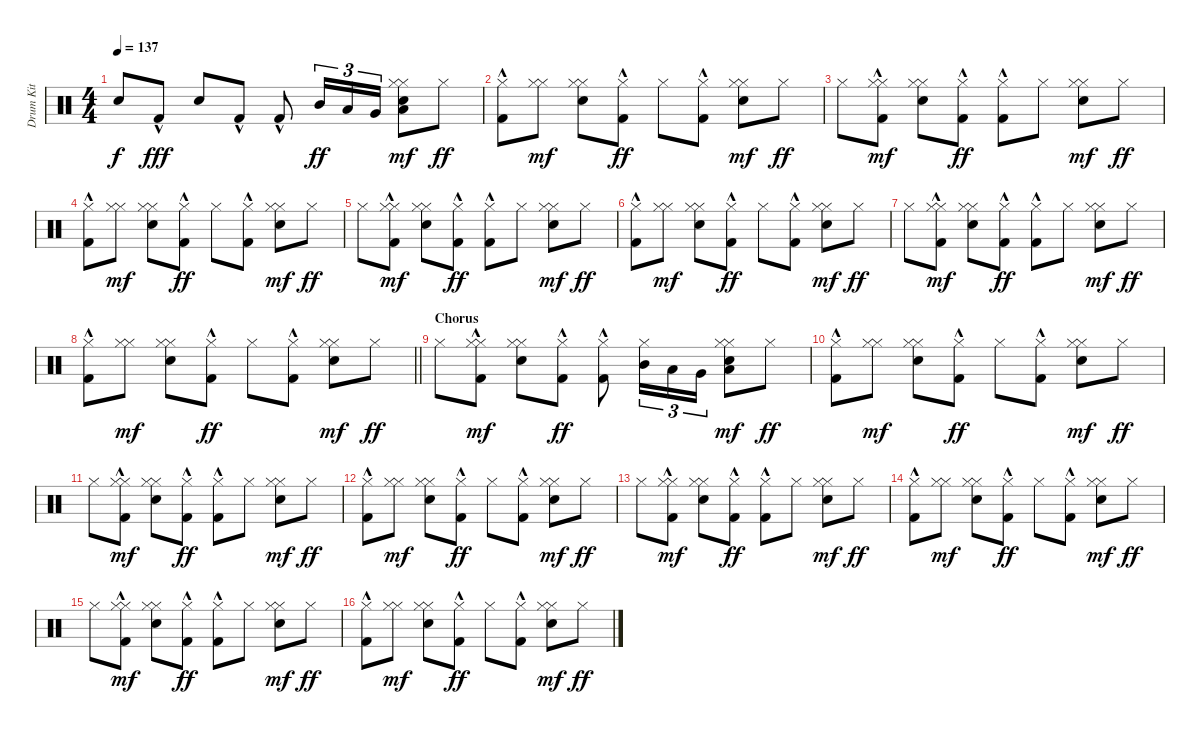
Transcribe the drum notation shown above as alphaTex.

\track ("Drum Kit" "Drum Kit") {instrument percussion}
\staff {score}
\articulation defaults
\ts (4 4)
\tempo 137
\clef neutral
\ks c "Snare (hit)"{t}.8{dy f} "Kick (hit) 2"{hac}.8{dy fff} "Hand Clap (hit)".8 "Kick (hit) 2"{hac}.8 "Kick (hit) 2"{hac}.8 "Mid Tom (hit)".16{tu (3 2) dy ff} "Low Tom (hit)".16{tu (3 2)} "Very Low Tom (hit)".16{tu (3 2)}
("Hand Clap (hit)" "Low Floor Tom (hit)" "Hi-Hat (closed)" "Hi-Hat (closed)").8{dy mf} "Hi-Hat (closed)".8{dy ff} |
("Kick (hit) 2"{hac} "Hi-Hat (closed)").8 ("Hi-Hat (closed)" "Hi-Hat (closed)").8{dy mf} ("Hand Clap (hit)" "Hi-Hat (closed)" "Hi-Hat (closed)").8 ("Kick (hit) 2"{hac} "Hi-Hat (closed)").8{dy ff} "Hi-Hat (closed)".8 ("Kick (hit) 2"{hac} "Hi-Hat (closed)").8 ("Hand Clap (hit)" "Hi-Hat (closed)" "Hi-Hat (closed)").8{dy mf} "Hi-Hat (closed)".8{dy ff} |
"Hi-Hat (closed)".8 ("Kick (hit) 2"{hac} "Hi-Hat (closed)" "Hi-Hat (closed)").8{dy mf} ("Hand Clap (hit)" "Hi-Hat (closed)" "Hi-Hat (closed)").8 ("Kick (hit) 2"{hac} "Hi-Hat (closed)").8{dy ff} ("Kick (hit) 2"{hac} "Hi-Hat (closed)").8 "Hi-Hat (closed)".8 ("Hand Clap (hit)" "Hi-Hat (closed)" "Hi-Hat (closed)").8{dy mf} "Hi-Hat (closed)".8{dy ff} |
("Kick (hit) 2"{hac} "Hi-Hat (closed)").8 ("Hi-Hat (closed)" "Hi-Hat (closed)").8{dy mf} ("Hand Clap (hit)" "Hi-Hat (closed)" "Hi-Hat (closed)").8 ("Kick (hit) 2"{hac} "Hi-Hat (closed)").8{dy ff} "Hi-Hat (closed)".8 ("Kick (hit) 2"{hac} "Hi-Hat (closed)").8 ("Hand Clap (hit)" "Hi-Hat (closed)" "Hi-Hat (closed)").8{dy mf} "Hi-Hat (closed)".8{dy ff} |
"Hi-Hat (closed)".8 ("Kick (hit) 2"{hac} "Hi-Hat (closed)" "Hi-Hat (closed)").8{dy mf} ("Hand Clap (hit)" "Hi-Hat (closed)" "Hi-Hat (closed)").8 ("Kick (hit) 2"{hac} "Hi-Hat (closed)").8{dy ff} ("Kick (hit) 2"{hac} "Hi-Hat (closed)").8 "Hi-Hat (closed)".8 ("Hand Clap (hit)" "Hi-Hat (closed)" "Hi-Hat (closed)").8{dy mf} "Hi-Hat (closed)".8{dy ff} |
("Kick (hit) 2"{hac} "Hi-Hat (closed)").8 ("Hi-Hat (closed)" "Hi-Hat (closed)").8{dy mf} ("Hand Clap (hit)" "Hi-Hat (closed)" "Hi-Hat (closed)").8 ("Kick (hit) 2"{hac} "Hi-Hat (closed)").8{dy ff} "Hi-Hat (closed)".8 ("Kick (hit) 2"{hac} "Hi-Hat (closed)").8 ("Hand Clap (hit)" "Hi-Hat (closed)" "Hi-Hat (closed)").8{dy mf} "Hi-Hat (closed)".8{dy ff} |
"Hi-Hat (closed)".8 ("Kick (hit) 2"{hac} "Hi-Hat (closed)" "Hi-Hat (closed)").8{dy mf} ("Hand Clap (hit)" "Hi-Hat (closed)" "Hi-Hat (closed)").8 ("Kick (hit) 2"{hac} "Hi-Hat (closed)").8{dy ff} ("Kick (hit) 2"{hac} "Hi-Hat (closed)").8 "Hi-Hat (closed)".8 ("Hand Clap (hit)" "Hi-Hat (closed)" "Hi-Hat (closed)").8{dy mf} "Hi-Hat (closed)".8{dy ff} |
\barLineRight lightlight
("Kick (hit) 2"{hac} "Hi-Hat (closed)").8 ("Hi-Hat (closed)" "Hi-Hat (closed)").8{dy mf} ("Hand Clap (hit)" "Hi-Hat (closed)" "Hi-Hat (closed)").8 ("Kick (hit) 2"{hac} "Hi-Hat (closed)").8{dy ff} "Hi-Hat (closed)".8 ("Kick (hit) 2"{hac} "Hi-Hat (closed)").8 ("Hand Clap (hit)" "Hi-Hat (closed)" "Hi-Hat (closed)").8{dy mf} "Hi-Hat (closed)".8{dy ff} |
\section ("" "Chorus")
"Hi-Hat (closed)".8 ("Kick (hit) 2"{hac} "Hi-Hat (closed)" "Hi-Hat (closed)").8{dy mf} ("Hand Clap (hit)" "Hi-Hat (closed)" "Hi-Hat (closed)").8 ("Kick (hit) 2"{hac} "Hi-Hat (closed)").8{dy ff} ("Kick (hit) 2"{hac} "Hi-Hat (closed)").8 ("Hi-Hat (closed)" "Mid Tom (hit)").16{tu (3 2)} "Low Tom (hit)".16{tu (3 2)} "Very Low Tom (hit)".16{tu (3 2)} ("Hand Clap (hit)" "Low Floor Tom (hit)" "Hi-Hat (closed)" "Hi-Hat (closed)").8{dy mf} "Hi-Hat (closed)".8{dy ff} |
("Kick (hit) 2"{hac} "Hi-Hat (closed)").8 ("Hi-Hat (closed)" "Hi-Hat (closed)").8{dy mf} ("Hand Clap (hit)" "Hi-Hat (closed)" "Hi-Hat (closed)").8 ("Kick (hit) 2"{hac} "Hi-Hat (closed)").8{dy ff} "Hi-Hat (closed)".8 ("Kick (hit) 2"{hac} "Hi-Hat (closed)").8 ("Hand Clap (hit)" "Hi-Hat (closed)" "Hi-Hat (closed)").8{dy mf} "Hi-Hat (closed)".8{dy ff} |
"Hi-Hat (closed)".8 ("Kick (hit) 2"{hac} "Hi-Hat (closed)" "Hi-Hat (closed)").8{dy mf} ("Hand Clap (hit)" "Hi-Hat (closed)" "Hi-Hat (closed)").8 ("Kick (hit) 2"{hac} "Hi-Hat (closed)").8{dy ff} ("Kick (hit) 2"{hac} "Hi-Hat (closed)").8 "Hi-Hat (closed)".8 ("Hand Clap (hit)" "Hi-Hat (closed)" "Hi-Hat (closed)").8{dy mf} "Hi-Hat (closed)".8{dy ff} |
("Kick (hit) 2"{hac} "Hi-Hat (closed)").8 ("Hi-Hat (closed)" "Hi-Hat (closed)").8{dy mf} ("Hand Clap (hit)" "Hi-Hat (closed)" "Hi-Hat (closed)").8 ("Kick (hit) 2"{hac} "Hi-Hat (closed)").8{dy ff} "Hi-Hat (closed)".8 ("Kick (hit) 2"{hac} "Hi-Hat (closed)").8 ("Hand Clap (hit)" "Hi-Hat (closed)" "Hi-Hat (closed)").8{dy mf} "Hi-Hat (closed)".8{dy ff} |
"Hi-Hat (closed)".8 ("Kick (hit) 2"{hac} "Hi-Hat (closed)" "Hi-Hat (closed)").8{dy mf} ("Hand Clap (hit)" "Hi-Hat (closed)" "Hi-Hat (closed)").8 ("Kick (hit) 2"{hac} "Hi-Hat (closed)").8{dy ff} ("Kick (hit) 2"{hac} "Hi-Hat (closed)").8 "Hi-Hat (closed)".8 ("Hand Clap (hit)" "Hi-Hat (closed)" "Hi-Hat (closed)").8{dy mf} "Hi-Hat (closed)".8{dy ff} |
("Kick (hit) 2"{hac} "Hi-Hat (closed)").8 ("Hi-Hat (closed)" "Hi-Hat (closed)").8{dy mf} ("Hand Clap (hit)" "Hi-Hat (closed)" "Hi-Hat (closed)").8 ("Kick (hit) 2"{hac} "Hi-Hat (closed)").8{dy ff} "Hi-Hat (closed)".8 ("Kick (hit) 2"{hac} "Hi-Hat (closed)").8 ("Hand Clap (hit)" "Hi-Hat (closed)" "Hi-Hat (closed)").8{dy mf} "Hi-Hat (closed)".8{dy ff} |
"Hi-Hat (closed)".8 ("Kick (hit) 2"{hac} "Hi-Hat (closed)" "Hi-Hat (closed)").8{dy mf} ("Hand Clap (hit)" "Hi-Hat (closed)" "Hi-Hat (closed)").8 ("Kick (hit) 2"{hac} "Hi-Hat (closed)").8{dy ff} ("Kick (hit) 2"{hac} "Hi-Hat (closed)").8 "Hi-Hat (closed)".8 ("Hand Clap (hit)" "Hi-Hat (closed)" "Hi-Hat (closed)").8{dy mf} "Hi-Hat (closed)".8{dy ff} |
("Kick (hit) 2"{hac} "Hi-Hat (closed)").8 ("Hi-Hat (closed)" "Hi-Hat (closed)").8{dy mf} ("Hand Clap (hit)" "Hi-Hat (closed)" "Hi-Hat (closed)").8 ("Kick (hit) 2"{hac} "Hi-Hat (closed)").8{dy ff} "Hi-Hat (closed)".8 ("Kick (hit) 2"{hac} "Hi-Hat (closed)").8 ("Hand Clap (hit)" "Hi-Hat (closed)" "Hi-Hat (closed)").8{dy mf} "Hi-Hat (closed)".8{dy ff}
